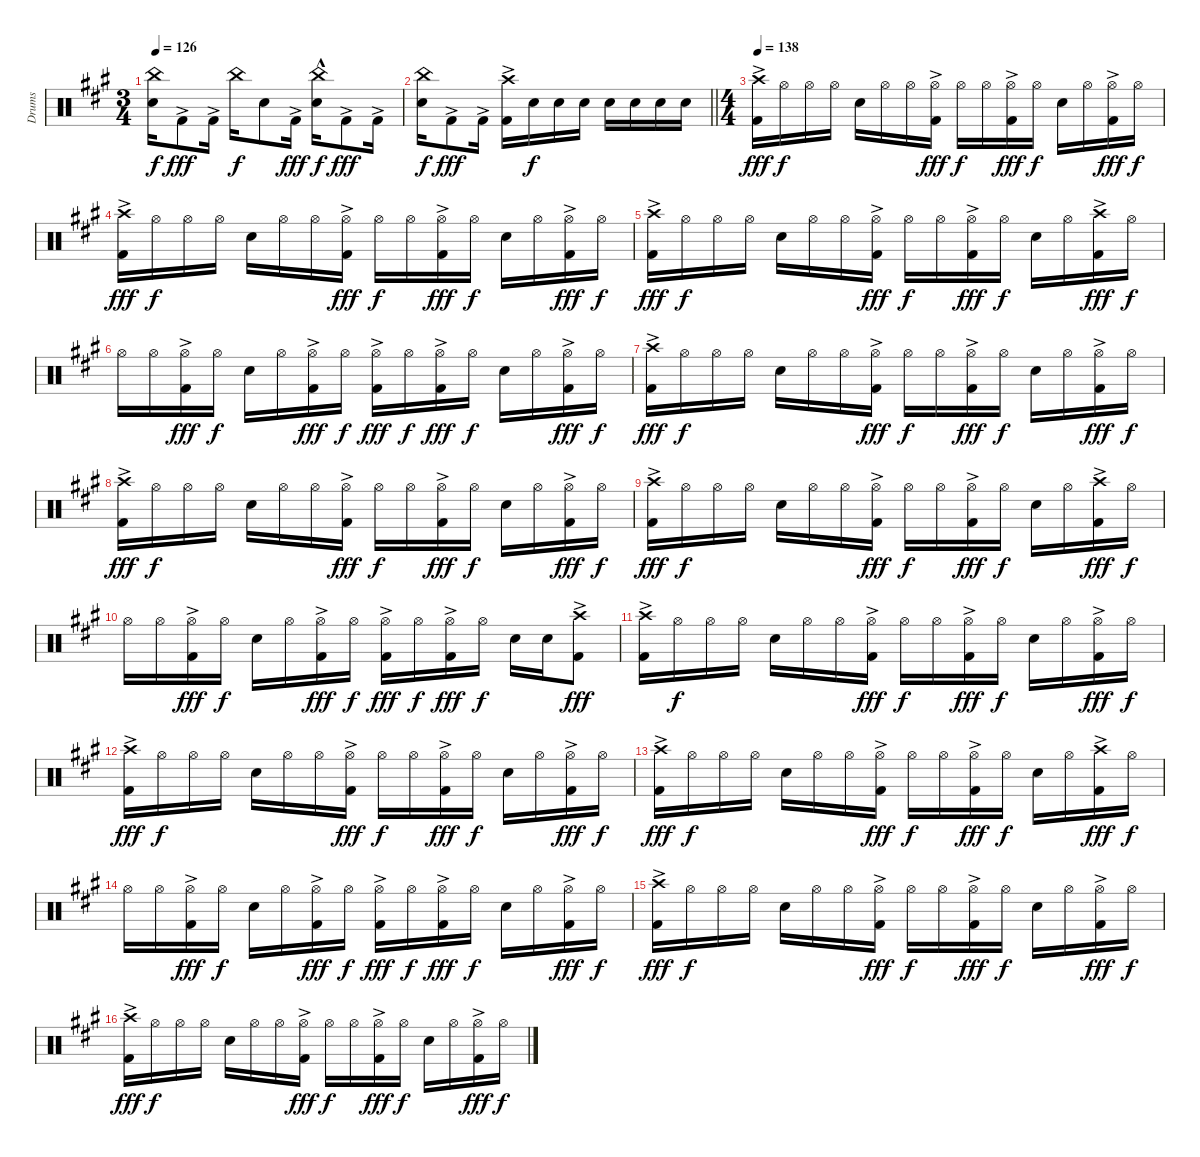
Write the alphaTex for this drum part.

\track ("Drums" "Drums") {instrument percussion}
\staff {score}
\articulation defaults
\ts (3 4)
\tempo 126
\clef neutral
\ks f#minor
("China (hit)" "Snare (hit) 2").16{dy f} "Kick (hit) 2"{ac}.8{dy fff} "Kick (hit) 2"{ac}.16 "China (hit)".16{dy f} "Snare (hit) 2".8 "Kick (hit) 2"{ac}.16{dy fff} ("China (hit)"{hac} "Snare (hit) 2").16{dy f} "Kick (hit) 2"{ac}.8{dy fff} "Kick (hit) 2"{ac}.16 |
\barLineRight lightlight
("China (hit)" "Snare (hit) 2").16{dy f} "Kick (hit) 2"{ac}.8{dy fff} "Kick (hit) 2"{ac}.16 ("Crash high (hit)" "Kick (hit) 2"{ac}).16 "Snare (hit) 2".16{dy f} "Snare (hit) 2".16 "Snare (hit) 2".16 "Snare (hit) 2".16 "Snare (hit) 2".16 "Snare (hit) 2".16 "Snare (hit) 2".16 |
\ts (4 4)
\tempo 138
("Crash high (hit)" "Kick (hit) 2"{ac}).16{dy fff} "Hi-Hat (open)".16{dy f} "Hi-Hat (open)".16 "Hi-Hat (open)".16 "Snare (hit) 2".16 "Hi-Hat (open)".16 "Hi-Hat (open)".16 ("Hi-Hat (open)" "Kick (hit) 2"{ac}).16{dy fff} "Hi-Hat (open)".16{dy f} "Hi-Hat (open)".16 ("Hi-Hat (open)" "Kick (hit) 2"{ac}).16{dy fff} "Hi-Hat (open)".16{dy f} "Snare (hit) 2".16 "Hi-Hat (open)".16 ("Hi-Hat (open)" "Kick (hit) 2"{ac}).16{dy fff} "Hi-Hat (open)".16{dy f} |
("Crash high (hit)" "Kick (hit) 2"{ac}).16{dy fff} "Hi-Hat (open)".16{dy f} "Hi-Hat (open)".16 "Hi-Hat (open)".16 "Snare (hit) 2".16 "Hi-Hat (open)".16 "Hi-Hat (open)".16 ("Hi-Hat (open)" "Kick (hit) 2"{ac}).16{dy fff} "Hi-Hat (open)".16{dy f} "Hi-Hat (open)".16 ("Hi-Hat (open)" "Kick (hit) 2"{ac}).16{dy fff} "Hi-Hat (open)".16{dy f} "Snare (hit) 2".16 "Hi-Hat (open)".16 ("Hi-Hat (open)" "Kick (hit) 2"{ac}).16{dy fff} "Hi-Hat (open)".16{dy f} |
("Crash high (hit)" "Kick (hit) 2"{ac}).16{dy fff} "Hi-Hat (open)".16{dy f} "Hi-Hat (open)".16 "Hi-Hat (open)".16 "Snare (hit) 2".16 "Hi-Hat (open)".16 "Hi-Hat (open)".16 ("Hi-Hat (open)" "Kick (hit) 2"{ac}).16{dy fff} "Hi-Hat (open)".16{dy f} "Hi-Hat (open)".16 ("Hi-Hat (open)" "Kick (hit) 2"{ac}).16{dy fff} "Hi-Hat (open)".16{dy f} "Snare (hit) 2".16 "Hi-Hat (open)".16 ("Crash high (hit)" "Kick (hit) 2"{ac}).16{dy fff} "Hi-Hat (open)".16{dy f} |
"Hi-Hat (open)".16 "Hi-Hat (open)".16 ("Hi-Hat (open)" "Kick (hit) 2"{ac}).16{dy fff} "Hi-Hat (open)".16{dy f} "Snare (hit) 2".16 "Hi-Hat (open)".16 ("Hi-Hat (open)" "Kick (hit) 2"{ac}).16{dy fff} "Hi-Hat (open)".16{dy f} ("Hi-Hat (open)" "Kick (hit) 2"{ac}).16{dy fff} "Hi-Hat (open)".16{dy f} ("Hi-Hat (open)" "Kick (hit) 2"{ac}).16{dy fff} "Hi-Hat (open)".16{dy f} "Snare (hit) 2".16 "Hi-Hat (open)".16 ("Hi-Hat (open)" "Kick (hit) 2"{ac}).16{dy fff} "Hi-Hat (open)".16{dy f} |
("Crash high (hit)" "Kick (hit) 2"{ac}).16{dy fff} "Hi-Hat (open)".16{dy f} "Hi-Hat (open)".16 "Hi-Hat (open)".16 "Snare (hit) 2".16 "Hi-Hat (open)".16 "Hi-Hat (open)".16 ("Hi-Hat (open)" "Kick (hit) 2"{ac}).16{dy fff} "Hi-Hat (open)".16{dy f} "Hi-Hat (open)".16 ("Hi-Hat (open)" "Kick (hit) 2"{ac}).16{dy fff} "Hi-Hat (open)".16{dy f} "Snare (hit) 2".16 "Hi-Hat (open)".16 ("Hi-Hat (open)" "Kick (hit) 2"{ac}).16{dy fff} "Hi-Hat (open)".16{dy f} |
("Crash high (hit)" "Kick (hit) 2"{ac}).16{dy fff} "Hi-Hat (open)".16{dy f} "Hi-Hat (open)".16 "Hi-Hat (open)".16 "Snare (hit) 2".16 "Hi-Hat (open)".16 "Hi-Hat (open)".16 ("Hi-Hat (open)" "Kick (hit) 2"{ac}).16{dy fff} "Hi-Hat (open)".16{dy f} "Hi-Hat (open)".16 ("Hi-Hat (open)" "Kick (hit) 2"{ac}).16{dy fff} "Hi-Hat (open)".16{dy f} "Snare (hit) 2".16 "Hi-Hat (open)".16 ("Hi-Hat (open)" "Kick (hit) 2"{ac}).16{dy fff} "Hi-Hat (open)".16{dy f} |
("Crash high (hit)" "Kick (hit) 2"{ac}).16{dy fff} "Hi-Hat (open)".16{dy f} "Hi-Hat (open)".16 "Hi-Hat (open)".16 "Snare (hit) 2".16 "Hi-Hat (open)".16 "Hi-Hat (open)".16 ("Hi-Hat (open)" "Kick (hit) 2"{ac}).16{dy fff} "Hi-Hat (open)".16{dy f} "Hi-Hat (open)".16 ("Hi-Hat (open)" "Kick (hit) 2"{ac}).16{dy fff} "Hi-Hat (open)".16{dy f} "Snare (hit) 2".16 "Hi-Hat (open)".16 ("Crash high (hit)" "Kick (hit) 2"{ac}).16{dy fff} "Hi-Hat (open)".16{dy f} |
"Hi-Hat (open)".16 "Hi-Hat (open)".16 ("Hi-Hat (open)" "Kick (hit) 2"{ac}).16{dy fff} "Hi-Hat (open)".16{dy f} "Snare (hit) 2".16 "Hi-Hat (open)".16 ("Hi-Hat (open)" "Kick (hit) 2"{ac}).16{dy fff} "Hi-Hat (open)".16{dy f} ("Hi-Hat (open)" "Kick (hit) 2"{ac}).16{dy fff} "Hi-Hat (open)".16{dy f} ("Hi-Hat (open)" "Kick (hit) 2"{ac}).16{dy fff} "Hi-Hat (open)".16{dy f} "Snare (hit) 2".16 "Snare (hit) 2".16 ("Crash high (hit)" "Kick (hit) 2"{ac}).8{dy fff} |
("Crash high (hit)" "Kick (hit) 2"{ac}).16 "Hi-Hat (open)".16{dy f} "Hi-Hat (open)".16 "Hi-Hat (open)".16 "Snare (hit) 2".16 "Hi-Hat (open)".16 "Hi-Hat (open)".16 ("Hi-Hat (open)" "Kick (hit) 2"{ac}).16{dy fff} "Hi-Hat (open)".16{dy f} "Hi-Hat (open)".16 ("Hi-Hat (open)" "Kick (hit) 2"{ac}).16{dy fff} "Hi-Hat (open)".16{dy f} "Snare (hit) 2".16 "Hi-Hat (open)".16 ("Hi-Hat (open)" "Kick (hit) 2"{ac}).16{dy fff} "Hi-Hat (open)".16{dy f} |
("Crash high (hit)" "Kick (hit) 2"{ac}).16{dy fff} "Hi-Hat (open)".16{dy f} "Hi-Hat (open)".16 "Hi-Hat (open)".16 "Snare (hit) 2".16 "Hi-Hat (open)".16 "Hi-Hat (open)".16 ("Hi-Hat (open)" "Kick (hit) 2"{ac}).16{dy fff} "Hi-Hat (open)".16{dy f} "Hi-Hat (open)".16 ("Hi-Hat (open)" "Kick (hit) 2"{ac}).16{dy fff} "Hi-Hat (open)".16{dy f} "Snare (hit) 2".16 "Hi-Hat (open)".16 ("Hi-Hat (open)" "Kick (hit) 2"{ac}).16{dy fff} "Hi-Hat (open)".16{dy f} |
("Crash high (hit)" "Kick (hit) 2"{ac}).16{dy fff} "Hi-Hat (open)".16{dy f} "Hi-Hat (open)".16 "Hi-Hat (open)".16 "Snare (hit) 2".16 "Hi-Hat (open)".16 "Hi-Hat (open)".16 ("Hi-Hat (open)" "Kick (hit) 2"{ac}).16{dy fff} "Hi-Hat (open)".16{dy f} "Hi-Hat (open)".16 ("Hi-Hat (open)" "Kick (hit) 2"{ac}).16{dy fff} "Hi-Hat (open)".16{dy f} "Snare (hit) 2".16 "Hi-Hat (open)".16 ("Crash high (hit)" "Kick (hit) 2"{ac}).16{dy fff} "Hi-Hat (open)".16{dy f} |
"Hi-Hat (open)".16 "Hi-Hat (open)".16 ("Hi-Hat (open)" "Kick (hit) 2"{ac}).16{dy fff} "Hi-Hat (open)".16{dy f} "Snare (hit) 2".16 "Hi-Hat (open)".16 ("Hi-Hat (open)" "Kick (hit) 2"{ac}).16{dy fff} "Hi-Hat (open)".16{dy f} ("Hi-Hat (open)" "Kick (hit) 2"{ac}).16{dy fff} "Hi-Hat (open)".16{dy f} ("Hi-Hat (open)" "Kick (hit) 2"{ac}).16{dy fff} "Hi-Hat (open)".16{dy f} "Snare (hit) 2".16 "Hi-Hat (open)".16 ("Hi-Hat (open)" "Kick (hit) 2"{ac}).16{dy fff} "Hi-Hat (open)".16{dy f} |
("Crash high (hit)" "Kick (hit) 2"{ac}).16{dy fff} "Hi-Hat (open)".16{dy f} "Hi-Hat (open)".16 "Hi-Hat (open)".16 "Snare (hit) 2".16 "Hi-Hat (open)".16 "Hi-Hat (open)".16 ("Hi-Hat (open)" "Kick (hit) 2"{ac}).16{dy fff} "Hi-Hat (open)".16{dy f} "Hi-Hat (open)".16 ("Hi-Hat (open)" "Kick (hit) 2"{ac}).16{dy fff} "Hi-Hat (open)".16{dy f} "Snare (hit) 2".16 "Hi-Hat (open)".16 ("Hi-Hat (open)" "Kick (hit) 2"{ac}).16{dy fff} "Hi-Hat (open)".16{dy f} |
("Crash high (hit)" "Kick (hit) 2"{ac}).16{dy fff} "Hi-Hat (open)".16{dy f} "Hi-Hat (open)".16 "Hi-Hat (open)".16 "Snare (hit) 2".16 "Hi-Hat (open)".16 "Hi-Hat (open)".16 ("Hi-Hat (open)" "Kick (hit) 2"{ac}).16{dy fff} "Hi-Hat (open)".16{dy f} "Hi-Hat (open)".16 ("Hi-Hat (open)" "Kick (hit) 2"{ac}).16{dy fff} "Hi-Hat (open)".16{dy f} "Snare (hit) 2".16 "Hi-Hat (open)".16 ("Hi-Hat (open)" "Kick (hit) 2"{ac}).16{dy fff} "Hi-Hat (open)".16{dy f}
